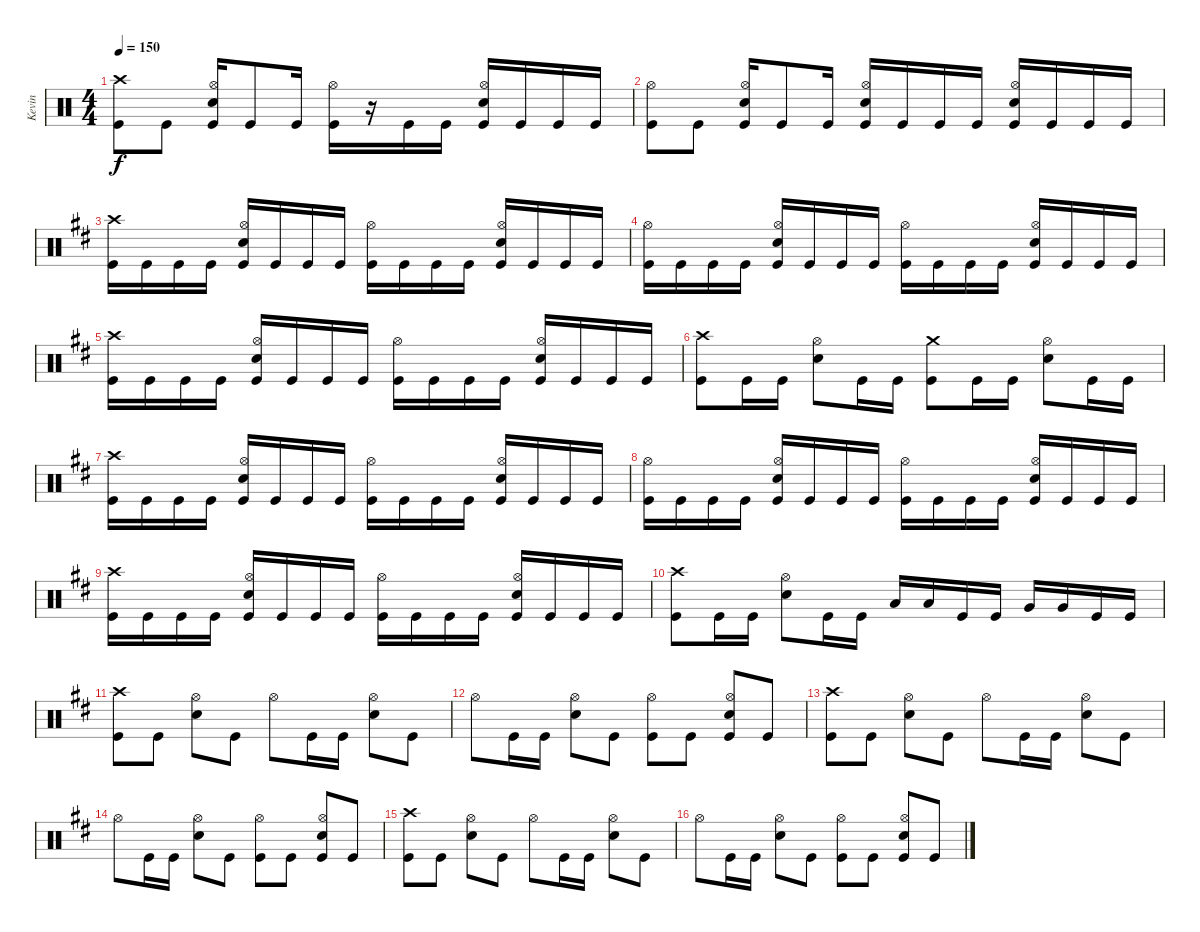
\track ("Kevin" "Kevin") {instrument percussion}
\staff {score}
\articulation defaults
\ts (4 4)
\tempo 150
\clef neutral
\ks c
("Crash high (hit)" "Kick (hit)").8{dy f} "Kick (hit)".8 ("Hi-Hat (open)" "Snare (hit) 2" "Kick (hit)").16 "Kick (hit)".8 "Kick (hit)".16 ("Hi-Hat (open)" "Kick (hit)").16 r.16 "Kick (hit)".16 "Kick (hit)".16 ("Hi-Hat (open)" "Snare (hit) 2" "Kick (hit)").16 "Kick (hit)".16 "Kick (hit)".16 "Kick (hit)".16 |
("Hi-Hat (open)" "Kick (hit)").8 "Kick (hit)".8 ("Hi-Hat (open)" "Snare (hit) 2" "Kick (hit)").16 "Kick (hit)".8 "Kick (hit)".16 ("Hi-Hat (open)" "Snare (hit) 2" "Kick (hit)").16 "Kick (hit)".16 "Kick (hit)".16 "Kick (hit)".16 ("Hi-Hat (open)" "Snare (hit) 2" "Kick (hit)").16 "Kick (hit)".16 "Kick (hit)".16 "Kick (hit)".16 |
\ks d
("Crash high (hit)" "Kick (hit)").16 "Kick (hit)".16 "Kick (hit)".16 "Kick (hit)".16 ("Hi-Hat (open)" "Snare (hit) 2" "Kick (hit)").16 "Kick (hit)".16 "Kick (hit)".16 "Kick (hit)".16 ("Hi-Hat (open)" "Kick (hit)").16 "Kick (hit)".16 "Kick (hit)".16 "Kick (hit)".16 ("Hi-Hat (open)" "Snare (hit) 2" "Kick (hit)").16 "Kick (hit)".16 "Kick (hit)".16 "Kick (hit)".16 |
("Hi-Hat (open)" "Kick (hit)").16 "Kick (hit)".16 "Kick (hit)".16 "Kick (hit)".16 ("Hi-Hat (open)" "Snare (hit) 2" "Kick (hit)").16 "Kick (hit)".16 "Kick (hit)".16 "Kick (hit)".16 ("Hi-Hat (open)" "Kick (hit)").16 "Kick (hit)".16 "Kick (hit)".16 "Kick (hit)".16 ("Hi-Hat (open)" "Snare (hit) 2" "Kick (hit)").16 "Kick (hit)".16 "Kick (hit)".16 "Kick (hit)".16 |
("Crash high (hit)" "Kick (hit)").16 "Kick (hit)".16 "Kick (hit)".16 "Kick (hit)".16 ("Hi-Hat (open)" "Snare (hit) 2" "Kick (hit)").16 "Kick (hit)".16 "Kick (hit)".16 "Kick (hit)".16 ("Hi-Hat (open)" "Kick (hit)").16 "Kick (hit)".16 "Kick (hit)".16 "Kick (hit)".16 ("Hi-Hat (open)" "Snare (hit) 2" "Kick (hit)").16 "Kick (hit)".16 "Kick (hit)".16 "Kick (hit)".16 |
("Crash high (hit)" "Kick (hit)").8 "Kick (hit)".16 "Kick (hit)".16 ("Hi-Hat (open)" "Snare (hit) 2").8 "Kick (hit)".16 "Kick (hit)".16 ("Crash medium (hit)" "Kick (hit)").8 "Kick (hit)".16 "Kick (hit)".16 ("Hi-Hat (open)" "Snare (hit) 2").8 "Kick (hit)".16 "Kick (hit)".16 |
("Crash high (hit)" "Kick (hit)").16 "Kick (hit)".16 "Kick (hit)".16 "Kick (hit)".16 ("Hi-Hat (open)" "Snare (hit) 2" "Kick (hit)").16 "Kick (hit)".16 "Kick (hit)".16 "Kick (hit)".16 ("Hi-Hat (open)" "Kick (hit)").16 "Kick (hit)".16 "Kick (hit)".16 "Kick (hit)".16 ("Hi-Hat (open)" "Snare (hit) 2" "Kick (hit)").16 "Kick (hit)".16 "Kick (hit)".16 "Kick (hit)".16 |
("Hi-Hat (open)" "Kick (hit)").16 "Kick (hit)".16 "Kick (hit)".16 "Kick (hit)".16 ("Hi-Hat (open)" "Snare (hit) 2" "Kick (hit)").16 "Kick (hit)".16 "Kick (hit)".16 "Kick (hit)".16 ("Hi-Hat (open)" "Kick (hit)").16 "Kick (hit)".16 "Kick (hit)".16 "Kick (hit)".16 ("Hi-Hat (open)" "Snare (hit) 2" "Kick (hit)").16 "Kick (hit)".16 "Kick (hit)".16 "Kick (hit)".16 |
("Crash high (hit)" "Kick (hit)").16 "Kick (hit)".16 "Kick (hit)".16 "Kick (hit)".16 ("Hi-Hat (open)" "Snare (hit) 2" "Kick (hit)").16 "Kick (hit)".16 "Kick (hit)".16 "Kick (hit)".16 ("Hi-Hat (open)" "Kick (hit)").16 "Kick (hit)".16 "Kick (hit)".16 "Kick (hit)".16 ("Hi-Hat (open)" "Snare (hit) 2" "Kick (hit)").16 "Kick (hit)".16 "Kick (hit)".16 "Kick (hit)".16 |
("Crash high (hit)" "Kick (hit)").8 "Kick (hit)".16 "Kick (hit)".16 ("Hi-Hat (open)" "Snare (hit) 2").8 "Kick (hit)".16 "Kick (hit)".16 "Low Tom (hit)".16 "Low Tom (hit)".16 "Kick (hit)".16 "Kick (hit)".16 "Very Low Tom (hit)".16 "Very Low Tom (hit)".16 "Kick (hit)".16 "Kick (hit)".16 |
("Crash high (hit)" "Kick (hit)").8 "Kick (hit)".8 ("Hi-Hat (open)" "Snare (hit) 2").8 "Kick (hit)".8 "Hi-Hat (open)".8 "Kick (hit)".16 "Kick (hit)".16 ("Hi-Hat (open)" "Snare (hit) 2").8 "Kick (hit)".8 |
"Hi-Hat (open)".8 "Kick (hit)".16 "Kick (hit)".16 ("Hi-Hat (open)" "Snare (hit) 2").8 "Kick (hit)".8 ("Hi-Hat (open)" "Kick (hit)").8 "Kick (hit)".8 ("Hi-Hat (open)" "Snare (hit) 2" "Kick (hit)").8 "Kick (hit)".8 |
("Crash high (hit)" "Kick (hit)").8 "Kick (hit)".8 ("Hi-Hat (open)" "Snare (hit) 2").8 "Kick (hit)".8 "Hi-Hat (open)".8 "Kick (hit)".16 "Kick (hit)".16 ("Hi-Hat (open)" "Snare (hit) 2").8 "Kick (hit)".8 |
"Hi-Hat (open)".8 "Kick (hit)".16 "Kick (hit)".16 ("Hi-Hat (open)" "Snare (hit) 2").8 "Kick (hit)".8 ("Hi-Hat (open)" "Kick (hit)").8 "Kick (hit)".8 ("Hi-Hat (open)" "Snare (hit) 2" "Kick (hit)").8 "Kick (hit)".8 |
("Crash high (hit)" "Kick (hit)").8 "Kick (hit)".8 ("Hi-Hat (open)" "Snare (hit) 2").8 "Kick (hit)".8 "Hi-Hat (open)".8 "Kick (hit)".16 "Kick (hit)".16 ("Hi-Hat (open)" "Snare (hit) 2").8 "Kick (hit)".8 |
"Hi-Hat (open)".8 "Kick (hit)".16 "Kick (hit)".16 ("Hi-Hat (open)" "Snare (hit) 2").8 "Kick (hit)".8 ("Hi-Hat (open)" "Kick (hit)").8 "Kick (hit)".8 ("Hi-Hat (open)" "Snare (hit) 2" "Kick (hit)").8 "Kick (hit)".8
